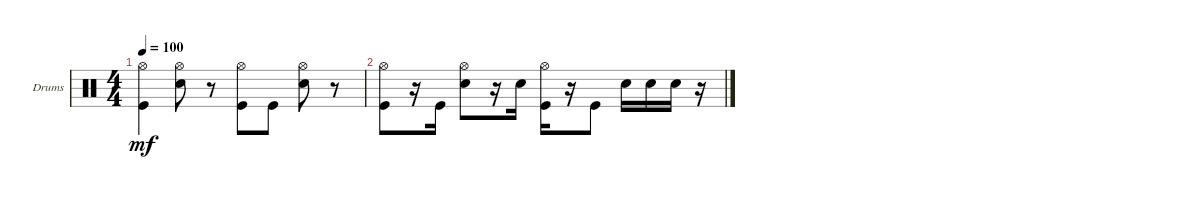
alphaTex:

\defaultSystemsLayout 4
\bracketExtendMode groupsimilarinstruments
\firstSystemTrackNameOrientation horizontal
\otherSystemsTrackNameOrientation horizontal
\track ("Drumkit" "Drums") {instrument percussion}
\staff {score}
\articulation defaults
\ts (4 4)
\tempo 100
\clef neutral
\ks c
("Kick (hit)" "Hi-Hat (open)").4{dy mf} ("Snare (hit) 2" "Hi-Hat (open)").8 r.8 ("Kick (hit)" "Hi-Hat (open)").8 "Kick (hit)".8 ("Snare (hit) 2" "Hi-Hat (open)").8 r.8 |
("Kick (hit)" "Hi-Hat (open)").8 r.16 "Kick (hit)".16 ("Snare (hit) 2" "Hi-Hat (open)").8 r.16 "Snare (hit) 2".16 ("Kick (hit)" "Hi-Hat (open)").16 r.16 "Kick (hit)".8 "Snare (hit) 2".16 "Snare (hit) 2".16 "Snare (hit) 2".16 r.16
